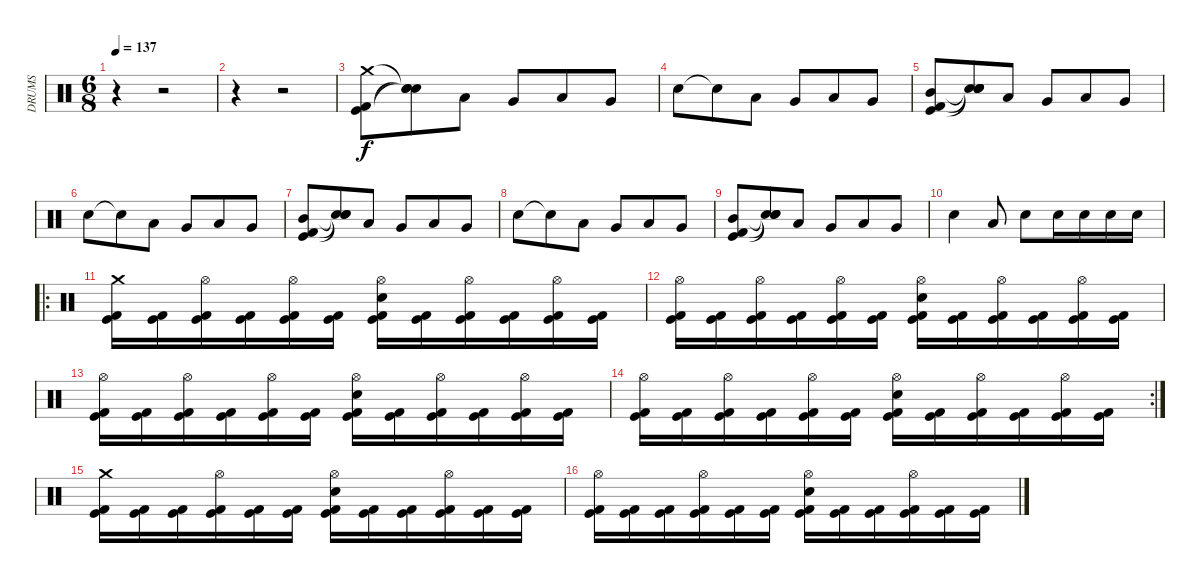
\track ("DRUMS" "DRUMS") {instrument percussion}
\staff {score}
\articulation defaults
\ts (6 8)
\tempo 137
\clef neutral
\ks c
r.4{dy f} r.2 |
r.4 r.2 |
("Crash medium (hit)" "Kick (hit)" "Kick (hit) 2").8 ("Snare (hit)"{t} "Snare (hit)"{t} "Snare (hit)"{t}).8 "Low Tom (hit)".8 "Very Low Tom (hit)".8 "Low Tom (hit)".8 "Very Low Tom (hit)".8 |
"Snare (hit) 2".8 "Snare (hit)"{t}.8 "Low Tom (hit)".8 "Very Low Tom (hit)".8 "Low Tom (hit)".8 "Very Low Tom (hit)".8 |
("Mid Tom (hit)" "Kick (hit)" "Kick (hit) 2").8 ("Snare (hit)"{t} "Snare (hit)"{t} "Snare (hit)"{t} "Snare (hit)").8 "Low Tom (hit)".8 "Very Low Tom (hit)".8 "Low Tom (hit)".8 "Very Low Tom (hit)".8 |
"Snare (hit) 2".8 "Snare (hit)"{t}.8 "Low Tom (hit)".8 "Very Low Tom (hit)".8 "Low Tom (hit)".8 "Very Low Tom (hit)".8 |
("Mid Tom (hit)" "Kick (hit)" "Kick (hit) 2").8 ("Snare (hit)"{t} "Snare (hit)"{t} "Snare (hit)"{t}).8 "Low Tom (hit)".8 "Very Low Tom (hit)".8 "Low Tom (hit)".8 "Very Low Tom (hit)".8 |
"Snare (hit) 2".8 "Snare (hit)"{t}.8 "Low Tom (hit)".8 "Very Low Tom (hit)".8 "Low Tom (hit)".8 "Very Low Tom (hit)".8 |
("Mid Tom (hit)" "Kick (hit)" "Kick (hit) 2").8 ("Snare (hit)"{t} "Snare (hit)"{t} "Snare (hit)"{t}).8 "Low Tom (hit)".8 "Very Low Tom (hit)".8 "Low Tom (hit)".8 "Very Low Tom (hit)".8 |
"Snare (hit) 2".4 "Low Tom (hit)".8 "Snare (hit) 2".8 "Snare (hit) 2".16 "Snare (hit) 2".16 "Snare (hit) 2".16 "Snare (hit) 2".16 |
\ro
("Crash medium (hit)" "Kick (hit)" "Kick (hit) 2").16 ("Kick (hit)" "Kick (hit) 2").16 ("Hi-Hat (open)" "Kick (hit)" "Kick (hit) 2").16 ("Kick (hit)" "Kick (hit) 2").16 ("Hi-Hat (open)" "Kick (hit)" "Kick (hit) 2").16 ("Kick (hit)" "Kick (hit) 2").16 ("Hi-Hat (open)" "Snare (hit) 2" "Kick (hit)" "Kick (hit) 2").16 ("Kick (hit)" "Kick (hit) 2").16 ("Hi-Hat (open)" "Kick (hit)" "Kick (hit) 2").16 ("Kick (hit)" "Kick (hit) 2").16 ("Hi-Hat (open)" "Kick (hit)" "Kick (hit) 2").16 ("Kick (hit)" "Kick (hit) 2").16 |
("Hi-Hat (open)" "Kick (hit)" "Kick (hit) 2").16 ("Kick (hit)" "Kick (hit) 2").16 ("Hi-Hat (open)" "Kick (hit)" "Kick (hit) 2").16 ("Kick (hit)" "Kick (hit) 2").16 ("Hi-Hat (open)" "Kick (hit)" "Kick (hit) 2").16 ("Kick (hit)" "Kick (hit) 2").16 ("Hi-Hat (open)" "Snare (hit) 2" "Kick (hit)" "Kick (hit) 2").16 ("Kick (hit)" "Kick (hit) 2").16 ("Hi-Hat (open)" "Kick (hit)" "Kick (hit) 2").16 ("Kick (hit)" "Kick (hit) 2").16 ("Hi-Hat (open)" "Kick (hit)" "Kick (hit) 2").16 ("Kick (hit)" "Kick (hit) 2").16 |
("Hi-Hat (open)" "Kick (hit)" "Kick (hit) 2").16 ("Kick (hit)" "Kick (hit) 2").16 ("Hi-Hat (open)" "Kick (hit)" "Kick (hit) 2").16 ("Kick (hit)" "Kick (hit) 2").16 ("Hi-Hat (open)" "Kick (hit)" "Kick (hit) 2").16 ("Kick (hit)" "Kick (hit) 2").16 ("Hi-Hat (open)" "Snare (hit) 2" "Kick (hit)" "Kick (hit) 2").16 ("Kick (hit)" "Kick (hit) 2").16 ("Hi-Hat (open)" "Kick (hit)" "Kick (hit) 2").16 ("Kick (hit)" "Kick (hit) 2").16 ("Hi-Hat (open)" "Kick (hit)" "Kick (hit) 2").16 ("Kick (hit)" "Kick (hit) 2").16 |
\rc 2
("Hi-Hat (open)" "Kick (hit)" "Kick (hit) 2").16 ("Kick (hit)" "Kick (hit) 2").16 ("Hi-Hat (open)" "Kick (hit)" "Kick (hit) 2").16 ("Kick (hit)" "Kick (hit) 2").16 ("Hi-Hat (open)" "Kick (hit)" "Kick (hit) 2").16 ("Kick (hit)" "Kick (hit) 2").16 ("Hi-Hat (open)" "Snare (hit) 2" "Kick (hit)" "Kick (hit) 2").16 ("Kick (hit)" "Kick (hit) 2").16 ("Hi-Hat (open)" "Kick (hit)" "Kick (hit) 2").16 ("Kick (hit)" "Kick (hit) 2").16 ("Hi-Hat (open)" "Kick (hit)" "Kick (hit) 2").16 ("Kick (hit)" "Kick (hit) 2").16 |
("Crash medium (hit)" "Kick (hit)" "Kick (hit) 2").16 ("Kick (hit)" "Kick (hit) 2").16 ("Kick (hit)" "Kick (hit) 2").16 ("Hi-Hat (open)" "Kick (hit)" "Kick (hit) 2").16 ("Kick (hit)" "Kick (hit) 2").16 ("Kick (hit)" "Kick (hit) 2").16 ("Hi-Hat (open)" "Snare (hit) 2" "Kick (hit)" "Kick (hit) 2").16 ("Kick (hit)" "Kick (hit) 2").16 ("Kick (hit)" "Kick (hit) 2").16 ("Hi-Hat (open)" "Kick (hit)" "Kick (hit) 2").16 ("Kick (hit)" "Kick (hit) 2").16 ("Kick (hit)" "Kick (hit) 2").16 |
("Hi-Hat (open)" "Kick (hit)" "Kick (hit) 2").16 ("Kick (hit)" "Kick (hit) 2").16 ("Kick (hit)" "Kick (hit) 2").16 ("Hi-Hat (open)" "Kick (hit)" "Kick (hit) 2").16 ("Kick (hit)" "Kick (hit) 2").16 ("Kick (hit)" "Kick (hit) 2").16 ("Hi-Hat (open)" "Snare (hit) 2" "Kick (hit)" "Kick (hit) 2").16 ("Kick (hit)" "Kick (hit) 2").16 ("Kick (hit)" "Kick (hit) 2").16 ("Hi-Hat (open)" "Kick (hit)" "Kick (hit) 2").16 ("Kick (hit)" "Kick (hit) 2").16 ("Kick (hit)" "Kick (hit) 2").16
